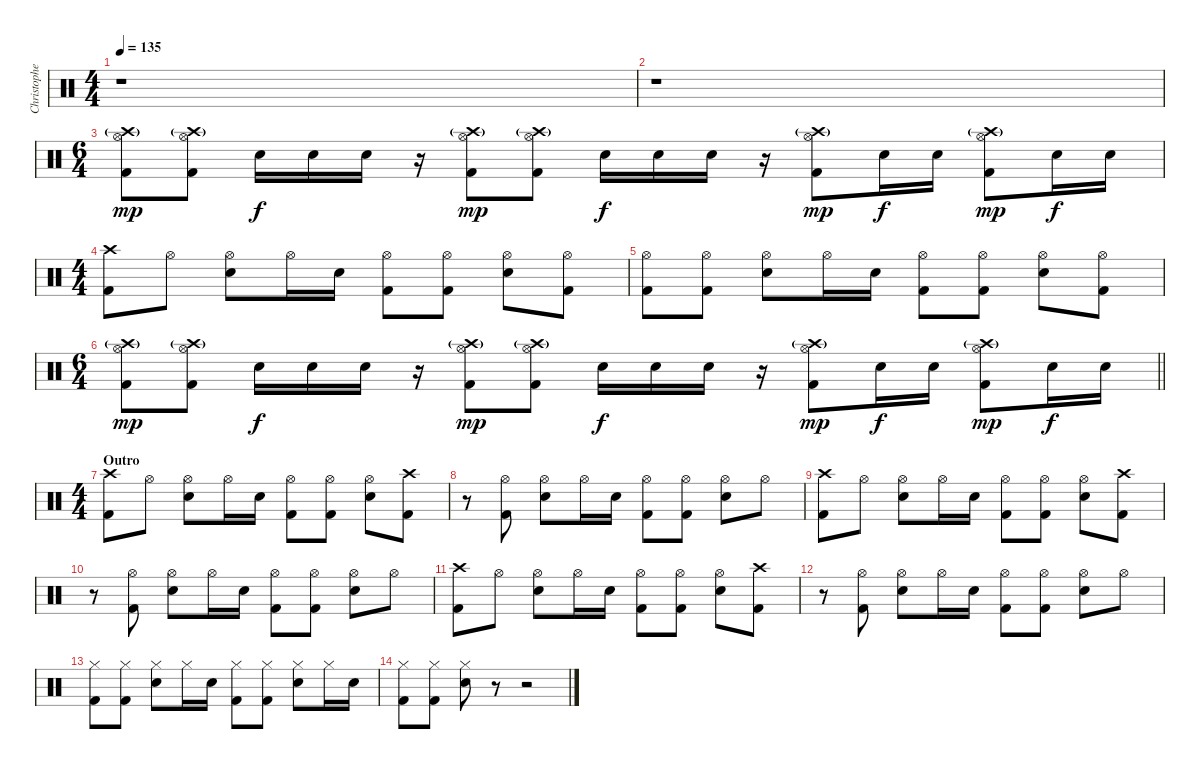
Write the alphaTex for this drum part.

\track ("Christopher - Drums" "Christophe") {instrument percussion}
\staff {score}
\articulation defaults
\ts (4 4)
\tempo 135
\clef neutral
\ks c
r.1{dy f} |
r.1 |
\ts (6 4)
("Crash high (hit)"{g} "Hi-Hat (open)" "Kick (hit) 2").8{dy mp} ("Crash high (hit)"{g} "Hi-Hat (open)" "Kick (hit) 2").8 "Snare (hit) 2".16{dy f} "Snare (hit) 2".16 "Snare (hit) 2".16 r.16 ("Crash high (hit)"{g} "Hi-Hat (open)" "Kick (hit) 2").8{dy mp} ("Crash high (hit)"{g} "Hi-Hat (open)" "Kick (hit) 2").8 "Snare (hit) 2".16{dy f} "Snare (hit) 2".16 "Snare (hit) 2".16 r.16 ("Crash high (hit)"{g} "Hi-Hat (open)" "Kick (hit) 2").8{dy mp} "Snare (hit) 2".16{dy f} "Snare (hit) 2".16 ("Crash high (hit)"{g} "Hi-Hat (open)" "Kick (hit) 2").8{dy mp} "Snare (hit) 2".16{dy f} "Snare (hit) 2".16 |
\ts (4 4)
("Crash high (hit)" "Kick (hit) 2").8 "Hi-Hat (open)".8 ("Hi-Hat (open)" "Snare (hit) 2").8 "Hi-Hat (open)".16 "Snare (hit) 2".16 ("Hi-Hat (open)" "Kick (hit) 2").8 ("Hi-Hat (open)" "Kick (hit) 2").8 ("Hi-Hat (open)" "Snare (hit) 2").8 ("Hi-Hat (open)" "Kick (hit) 2").8 |
("Hi-Hat (open)" "Kick (hit) 2").8 ("Hi-Hat (open)" "Kick (hit) 2").8 ("Hi-Hat (open)" "Snare (hit) 2").8 "Hi-Hat (open)".16 "Snare (hit) 2".16 ("Hi-Hat (open)" "Kick (hit) 2").8 ("Hi-Hat (open)" "Kick (hit) 2").8 ("Hi-Hat (open)" "Snare (hit) 2").8 ("Hi-Hat (open)" "Kick (hit) 2").8 |
\ts (6 4)
\barLineRight lightlight
("Crash high (hit)"{g} "Hi-Hat (open)" "Kick (hit) 2").8{dy mp} ("Crash high (hit)"{g} "Hi-Hat (open)" "Kick (hit) 2").8 "Snare (hit) 2".16{dy f} "Snare (hit) 2".16 "Snare (hit) 2".16 r.16 ("Crash high (hit)"{g} "Hi-Hat (open)" "Kick (hit) 2").8{dy mp} ("Crash high (hit)"{g} "Hi-Hat (open)" "Kick (hit) 2").8 "Snare (hit) 2".16{dy f} "Snare (hit) 2".16 "Snare (hit) 2".16 r.16 ("Crash high (hit)"{g} "Hi-Hat (open)" "Kick (hit) 2").8{dy mp} "Snare (hit) 2".16{dy f} "Snare (hit) 2".16 ("Crash high (hit)"{g} "Hi-Hat (open)" "Kick (hit) 2").8{dy mp} "Snare (hit) 2".16{dy f} "Snare (hit) 2".16 |
\ts (4 4)
\section ("" "Outro")
("Crash high (hit)" "Kick (hit) 2").8 "Hi-Hat (open)".8 ("Hi-Hat (open)" "Snare (hit) 2").8 "Hi-Hat (open)".16 "Snare (hit) 2".16 ("Hi-Hat (open)" "Kick (hit) 2").8 ("Hi-Hat (open)" "Kick (hit) 2").8 ("Hi-Hat (open)" "Snare (hit) 2").8 ("Crash high (hit)" "Kick (hit) 2").8 |
r.8 ("Hi-Hat (open)" "Kick (hit) 2").8 ("Hi-Hat (open)" "Snare (hit) 2").8 "Hi-Hat (open)".16 "Snare (hit) 2".16 ("Hi-Hat (open)" "Kick (hit) 2").8 ("Hi-Hat (open)" "Kick (hit) 2").8 ("Hi-Hat (open)" "Snare (hit) 2").8 "Hi-Hat (open)".8 |
("Crash high (hit)" "Kick (hit) 2").8 "Hi-Hat (open)".8 ("Hi-Hat (open)" "Snare (hit) 2").8 "Hi-Hat (open)".16 "Snare (hit) 2".16 ("Hi-Hat (open)" "Kick (hit) 2").8 ("Hi-Hat (open)" "Kick (hit) 2").8 ("Hi-Hat (open)" "Snare (hit) 2").8 ("Crash high (hit)" "Kick (hit) 2").8 |
r.8 ("Hi-Hat (open)" "Kick (hit) 2").8 ("Hi-Hat (open)" "Snare (hit) 2").8 "Hi-Hat (open)".16 "Snare (hit) 2".16 ("Hi-Hat (open)" "Kick (hit) 2").8 ("Hi-Hat (open)" "Kick (hit) 2").8 ("Hi-Hat (open)" "Snare (hit) 2").8 "Hi-Hat (open)".8 |
("Crash high (hit)" "Kick (hit) 2").8 "Hi-Hat (open)".8 ("Hi-Hat (open)" "Snare (hit) 2").8 "Hi-Hat (open)".16 "Snare (hit) 2".16 ("Hi-Hat (open)" "Kick (hit) 2").8 ("Hi-Hat (open)" "Kick (hit) 2").8 ("Hi-Hat (open)" "Snare (hit) 2").8 ("Crash high (hit)" "Kick (hit) 2").8 |
r.8 ("Hi-Hat (open)" "Kick (hit) 2").8 ("Hi-Hat (open)" "Snare (hit) 2").8 "Hi-Hat (open)".16 "Snare (hit) 2".16 ("Hi-Hat (open)" "Kick (hit) 2").8 ("Hi-Hat (open)" "Kick (hit) 2").8 ("Hi-Hat (open)" "Snare (hit) 2").8 "Hi-Hat (open)".8 |
("Hi-Hat (closed)" "Kick (hit) 2").8 ("Hi-Hat (closed)" "Kick (hit) 2").8 ("Hi-Hat (closed)" "Snare (hit) 2").8 "Hi-Hat (closed)".16 "Snare (hit) 2".16 ("Hi-Hat (closed)" "Kick (hit) 2").8 ("Hi-Hat (closed)" "Kick (hit) 2").8 ("Hi-Hat (closed)" "Snare (hit) 2").8 "Hi-Hat (closed)".16 "Snare (hit) 2".16 |
("Hi-Hat (closed)" "Kick (hit) 2").8 ("Hi-Hat (closed)" "Kick (hit) 2").8 ("Hi-Hat (closed)" "Snare (hit) 2").8 r.8 r.2
